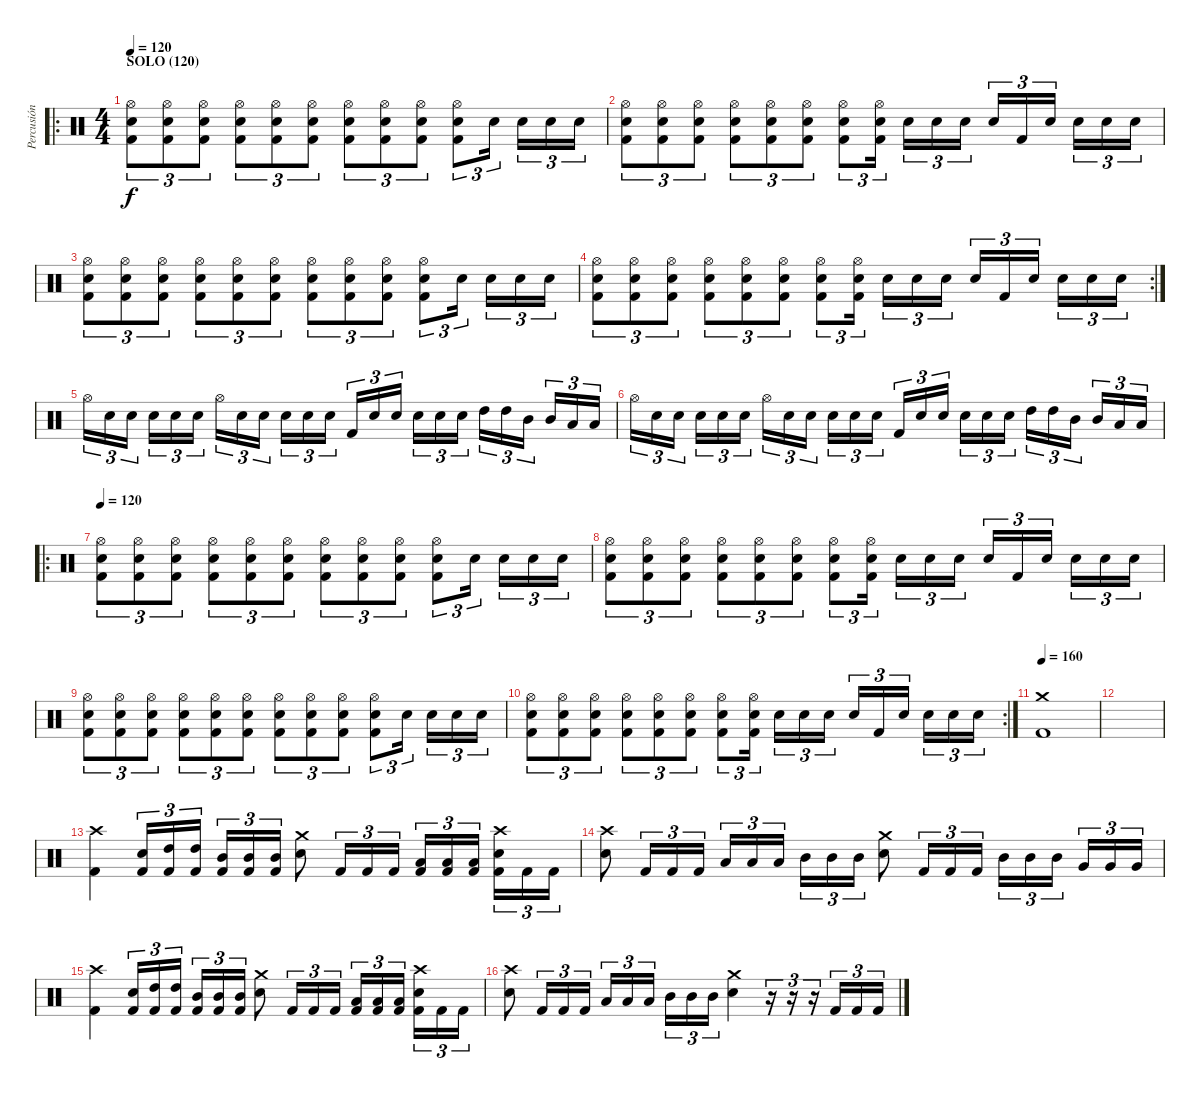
\track ("Percusión" "Percusión") {instrument percussion}
\staff {score}
\articulation defaults
\ro
\ts (4 4)
\section ("" "SOLO (120)")
\tempo 120
\clef neutral
\ks c
("Hi-Hat (open)" "Electric Snare (hit)" "Kick (hit) 2").8{tu (3 2) dy f} ("Hi-Hat (open)" "Electric Snare (hit)" "Kick (hit) 2").8{tu (3 2)} ("Hi-Hat (open)" "Electric Snare (hit)" "Kick (hit) 2").8{tu (3 2)} ("Hi-Hat (open)" "Electric Snare (hit)" "Kick (hit) 2").8{tu (3 2)} ("Hi-Hat (open)" "Electric Snare (hit)" "Kick (hit) 2").8{tu (3 2)} ("Hi-Hat (open)" "Electric Snare (hit)" "Kick (hit) 2").8{tu (3 2)} ("Hi-Hat (open)" "Electric Snare (hit)" "Kick (hit) 2").8{tu (3 2)} ("Hi-Hat (open)" "Electric Snare (hit)" "Kick (hit) 2").8{tu (3 2)} ("Hi-Hat (open)" "Electric Snare (hit)" "Kick (hit) 2").8{tu (3 2)} ("Hi-Hat (open)" "Electric Snare (hit)" "Kick (hit) 2").8{tu (3 2)} "Electric Snare (hit)".16{tu (3 2)} "Electric Snare (hit)".16{tu (3 2)} "Electric Snare (hit)".16{tu (3 2)} "Electric Snare (hit)".16{tu (3 2)} |
("Hi-Hat (open)" "Electric Snare (hit)" "Kick (hit) 2").8{tu (3 2)} ("Hi-Hat (open)" "Electric Snare (hit)" "Kick (hit) 2").8{tu (3 2)} ("Hi-Hat (open)" "Electric Snare (hit)" "Kick (hit) 2").8{tu (3 2)} ("Hi-Hat (open)" "Electric Snare (hit)" "Kick (hit) 2").8{tu (3 2)} ("Hi-Hat (open)" "Electric Snare (hit)" "Kick (hit) 2").8{tu (3 2)} ("Hi-Hat (open)" "Electric Snare (hit)" "Kick (hit) 2").8{tu (3 2)} ("Hi-Hat (open)" "Electric Snare (hit)" "Kick (hit) 2").8{tu (3 2)} ("Hi-Hat (open)" "Electric Snare (hit)" "Kick (hit) 2").16{tu (3 2)} "Electric Snare (hit)".16{tu (3 2)} "Electric Snare (hit)".16{tu (3 2)} "Electric Snare (hit)".16{tu (3 2)} "Electric Snare (hit)".16{tu (3 2)} "Kick (hit) 2".16{tu (3 2)} "Electric Snare (hit)".16{tu (3 2)} "Electric Snare (hit)".16{tu (3 2)} "Electric Snare (hit)".16{tu (3 2)} "Electric Snare (hit)".16{tu (3 2)} |
("Hi-Hat (open)" "Electric Snare (hit)" "Kick (hit) 2").8{tu (3 2)} ("Hi-Hat (open)" "Electric Snare (hit)" "Kick (hit) 2").8{tu (3 2)} ("Hi-Hat (open)" "Electric Snare (hit)" "Kick (hit) 2").8{tu (3 2)} ("Hi-Hat (open)" "Electric Snare (hit)" "Kick (hit) 2").8{tu (3 2)} ("Hi-Hat (open)" "Electric Snare (hit)" "Kick (hit) 2").8{tu (3 2)} ("Hi-Hat (open)" "Electric Snare (hit)" "Kick (hit) 2").8{tu (3 2)} ("Hi-Hat (open)" "Electric Snare (hit)" "Kick (hit) 2").8{tu (3 2)} ("Hi-Hat (open)" "Electric Snare (hit)" "Kick (hit) 2").8{tu (3 2)} ("Hi-Hat (open)" "Electric Snare (hit)" "Kick (hit) 2").8{tu (3 2)} ("Hi-Hat (open)" "Electric Snare (hit)" "Kick (hit) 2").8{tu (3 2)} "Electric Snare (hit)".16{tu (3 2)} "Electric Snare (hit)".16{tu (3 2)} "Electric Snare (hit)".16{tu (3 2)} "Electric Snare (hit)".16{tu (3 2)} |
\rc 2
("Hi-Hat (open)" "Electric Snare (hit)" "Kick (hit) 2").8{tu (3 2)} ("Hi-Hat (open)" "Electric Snare (hit)" "Kick (hit) 2").8{tu (3 2)} ("Hi-Hat (open)" "Electric Snare (hit)" "Kick (hit) 2").8{tu (3 2)} ("Hi-Hat (open)" "Electric Snare (hit)" "Kick (hit) 2").8{tu (3 2)} ("Hi-Hat (open)" "Electric Snare (hit)" "Kick (hit) 2").8{tu (3 2)} ("Hi-Hat (open)" "Electric Snare (hit)" "Kick (hit) 2").8{tu (3 2)} ("Hi-Hat (open)" "Electric Snare (hit)" "Kick (hit) 2").8{tu (3 2)} ("Hi-Hat (open)" "Electric Snare (hit)" "Kick (hit) 2").16{tu (3 2)} "Electric Snare (hit)".16{tu (3 2)} "Electric Snare (hit)".16{tu (3 2)} "Electric Snare (hit)".16{tu (3 2)} "Electric Snare (hit)".16{tu (3 2)} "Kick (hit) 2".16{tu (3 2)} "Electric Snare (hit)".16{tu (3 2)} "Electric Snare (hit)".16{tu (3 2)} "Electric Snare (hit)".16{tu (3 2)} "Electric Snare (hit)".16{tu (3 2)} |
"Hi-Hat (open)".16{tu (3 2)} "Electric Snare (hit)".16{tu (3 2)} "Electric Snare (hit)".16{tu (3 2)} "Electric Snare (hit)".16{tu (3 2)} "Electric Snare (hit)".16{tu (3 2)} "Electric Snare (hit)".16{tu (3 2)} "Hi-Hat (open)".16{tu (3 2)} "Electric Snare (hit)".16{tu (3 2)} "Electric Snare (hit)".16{tu (3 2)} "Electric Snare (hit)".16{tu (3 2)} "Electric Snare (hit)".16{tu (3 2)} "Electric Snare (hit)".16{tu (3 2)} "Kick (hit) 2".16{tu (3 2)} "Electric Snare (hit)".16{tu (3 2)} "Electric Snare (hit)".16{tu (3 2)} "Electric Snare (hit)".16{tu (3 2)} "Electric Snare (hit)".16{tu (3 2)} "Electric Snare (hit)".16{tu (3 2)} "High Tom (hit)".16{tu (3 2)} "High Tom (hit)".16{tu (3 2)} "Mid Tom (hit)".16{tu (3 2)} "Mid Tom (hit)".16{tu (3 2)} "Low Tom (hit)".16{tu (3 2)} "Low Tom (hit)".16{tu (3 2)} |
"Hi-Hat (open)".16{tu (3 2)} "Electric Snare (hit)".16{tu (3 2)} "Electric Snare (hit)".16{tu (3 2)} "Electric Snare (hit)".16{tu (3 2)} "Electric Snare (hit)".16{tu (3 2)} "Electric Snare (hit)".16{tu (3 2)} "Hi-Hat (open)".16{tu (3 2)} "Electric Snare (hit)".16{tu (3 2)} "Electric Snare (hit)".16{tu (3 2)} "Electric Snare (hit)".16{tu (3 2)} "Electric Snare (hit)".16{tu (3 2)} "Electric Snare (hit)".16{tu (3 2)} "Kick (hit) 2".16{tu (3 2)} "Electric Snare (hit)".16{tu (3 2)} "Electric Snare (hit)".16{tu (3 2)} "Electric Snare (hit)".16{tu (3 2)} "Electric Snare (hit)".16{tu (3 2)} "Electric Snare (hit)".16{tu (3 2)} "High Tom (hit)".16{tu (3 2)} "High Tom (hit)".16{tu (3 2)} "Mid Tom (hit)".16{tu (3 2)} "Mid Tom (hit)".16{tu (3 2)} "Low Tom (hit)".16{tu (3 2)} "Low Tom (hit)".16{tu (3 2)} |
\ro
\tempo 120
("Hi-Hat (open)" "Electric Snare (hit)" "Kick (hit) 2").8{tu (3 2)} ("Hi-Hat (open)" "Electric Snare (hit)" "Kick (hit) 2").8{tu (3 2)} ("Hi-Hat (open)" "Electric Snare (hit)" "Kick (hit) 2").8{tu (3 2)} ("Hi-Hat (open)" "Electric Snare (hit)" "Kick (hit) 2").8{tu (3 2)} ("Hi-Hat (open)" "Electric Snare (hit)" "Kick (hit) 2").8{tu (3 2)} ("Hi-Hat (open)" "Electric Snare (hit)" "Kick (hit) 2").8{tu (3 2)} ("Hi-Hat (open)" "Electric Snare (hit)" "Kick (hit) 2").8{tu (3 2)} ("Hi-Hat (open)" "Electric Snare (hit)" "Kick (hit) 2").8{tu (3 2)} ("Hi-Hat (open)" "Electric Snare (hit)" "Kick (hit) 2").8{tu (3 2)} ("Hi-Hat (open)" "Electric Snare (hit)" "Kick (hit) 2").8{tu (3 2)} "Electric Snare (hit)".16{tu (3 2)} "Electric Snare (hit)".16{tu (3 2)} "Electric Snare (hit)".16{tu (3 2)} "Electric Snare (hit)".16{tu (3 2)} |
("Hi-Hat (open)" "Electric Snare (hit)" "Kick (hit) 2").8{tu (3 2)} ("Hi-Hat (open)" "Electric Snare (hit)" "Kick (hit) 2").8{tu (3 2)} ("Hi-Hat (open)" "Electric Snare (hit)" "Kick (hit) 2").8{tu (3 2)} ("Hi-Hat (open)" "Electric Snare (hit)" "Kick (hit) 2").8{tu (3 2)} ("Hi-Hat (open)" "Electric Snare (hit)" "Kick (hit) 2").8{tu (3 2)} ("Hi-Hat (open)" "Electric Snare (hit)" "Kick (hit) 2").8{tu (3 2)} ("Hi-Hat (open)" "Electric Snare (hit)" "Kick (hit) 2").8{tu (3 2)} ("Hi-Hat (open)" "Electric Snare (hit)" "Kick (hit) 2").16{tu (3 2)} "Electric Snare (hit)".16{tu (3 2)} "Electric Snare (hit)".16{tu (3 2)} "Electric Snare (hit)".16{tu (3 2)} "Electric Snare (hit)".16{tu (3 2)} "Kick (hit) 2".16{tu (3 2)} "Electric Snare (hit)".16{tu (3 2)} "Electric Snare (hit)".16{tu (3 2)} "Electric Snare (hit)".16{tu (3 2)} "Electric Snare (hit)".16{tu (3 2)} |
("Hi-Hat (open)" "Electric Snare (hit)" "Kick (hit) 2").8{tu (3 2)} ("Hi-Hat (open)" "Electric Snare (hit)" "Kick (hit) 2").8{tu (3 2)} ("Hi-Hat (open)" "Electric Snare (hit)" "Kick (hit) 2").8{tu (3 2)} ("Hi-Hat (open)" "Electric Snare (hit)" "Kick (hit) 2").8{tu (3 2)} ("Hi-Hat (open)" "Electric Snare (hit)" "Kick (hit) 2").8{tu (3 2)} ("Hi-Hat (open)" "Electric Snare (hit)" "Kick (hit) 2").8{tu (3 2)} ("Hi-Hat (open)" "Electric Snare (hit)" "Kick (hit) 2").8{tu (3 2)} ("Hi-Hat (open)" "Electric Snare (hit)" "Kick (hit) 2").8{tu (3 2)} ("Hi-Hat (open)" "Electric Snare (hit)" "Kick (hit) 2").8{tu (3 2)} ("Hi-Hat (open)" "Electric Snare (hit)" "Kick (hit) 2").8{tu (3 2)} "Electric Snare (hit)".16{tu (3 2)} "Electric Snare (hit)".16{tu (3 2)} "Electric Snare (hit)".16{tu (3 2)} "Electric Snare (hit)".16{tu (3 2)} |
\rc 2
("Hi-Hat (open)" "Electric Snare (hit)" "Kick (hit) 2").8{tu (3 2)} ("Hi-Hat (open)" "Electric Snare (hit)" "Kick (hit) 2").8{tu (3 2)} ("Hi-Hat (open)" "Electric Snare (hit)" "Kick (hit) 2").8{tu (3 2)} ("Hi-Hat (open)" "Electric Snare (hit)" "Kick (hit) 2").8{tu (3 2)} ("Hi-Hat (open)" "Electric Snare (hit)" "Kick (hit) 2").8{tu (3 2)} ("Hi-Hat (open)" "Electric Snare (hit)" "Kick (hit) 2").8{tu (3 2)} ("Hi-Hat (open)" "Electric Snare (hit)" "Kick (hit) 2").8{tu (3 2)} ("Hi-Hat (open)" "Electric Snare (hit)" "Kick (hit) 2").16{tu (3 2)} "Electric Snare (hit)".16{tu (3 2)} "Electric Snare (hit)".16{tu (3 2)} "Electric Snare (hit)".16{tu (3 2)} "Electric Snare (hit)".16{tu (3 2)} "Kick (hit) 2".16{tu (3 2)} "Electric Snare (hit)".16{tu (3 2)} "Electric Snare (hit)".16{tu (3 2)} "Electric Snare (hit)".16{tu (3 2)} "Electric Snare (hit)".16{tu (3 2)} |
\tempo 160
("Crash medium (hit)" "Kick (hit) 2").1 |
|
("Crash high (hit)" "Kick (hit) 2").4 ("Electric Snare (hit)" "Kick (hit) 2").16{tu (3 2)} ("High Tom (hit)" "Kick (hit) 2").16{tu (3 2)} ("High Tom (hit)" "Kick (hit) 2").16{tu (3 2)} ("Mid Tom (hit)" "Kick (hit) 2").16{tu (3 2)} ("Mid Tom (hit)" "Kick (hit) 2").16{tu (3 2)} ("Mid Tom (hit)" "Kick (hit) 2").16{tu (3 2)} ("Crash medium (hit)" "Electric Snare (hit)").8 "Kick (hit) 2".16{tu (3 2)} "Kick (hit) 2".16{tu (3 2)} "Kick (hit) 2".16{tu (3 2)} ("Low Tom (hit)" "Kick (hit) 2").16{tu (3 2)} ("Low Tom (hit)" "Kick (hit) 2").16{tu (3 2)} ("Low Tom (hit)" "Kick (hit) 2").16{tu (3 2)} ("Crash high (hit)" "Electric Snare (hit)" "Kick (hit) 2").16{tu (3 2)} "Kick (hit) 2".16{tu (3 2)} "Kick (hit) 2".16{tu (3 2)} |
("Crash high (hit)" "Electric Snare (hit)").8 "Kick (hit) 2".16{tu (3 2)} "Kick (hit) 2".16{tu (3 2)} "Kick (hit) 2".16{tu (3 2)} "Low Tom (hit)".16{tu (3 2)} "Low Tom (hit)".16{tu (3 2)} "Low Tom (hit)".16{tu (3 2)} "Mid Tom (hit)".16{tu (3 2)} "Mid Tom (hit)".16{tu (3 2)} "Mid Tom (hit)".16{tu (3 2)} ("Crash medium (hit)" "Electric Snare (hit)").8 "Kick (hit) 2".16{tu (3 2)} "Kick (hit) 2".16{tu (3 2)} "Kick (hit) 2".16{tu (3 2)} "Mid Tom (hit)".16{tu (3 2)} "Mid Tom (hit)".16{tu (3 2)} "Mid Tom (hit)".16{tu (3 2)} "Very Low Tom (hit)".16{tu (3 2)} "Very Low Tom (hit)".16{tu (3 2)} "Very Low Tom (hit)".16{tu (3 2)} |
("Crash high (hit)" "Kick (hit) 2").4 ("Electric Snare (hit)" "Kick (hit) 2").16{tu (3 2)} ("High Tom (hit)" "Kick (hit) 2").16{tu (3 2)} ("High Tom (hit)" "Kick (hit) 2").16{tu (3 2)} ("Mid Tom (hit)" "Kick (hit) 2").16{tu (3 2)} ("Mid Tom (hit)" "Kick (hit) 2").16{tu (3 2)} ("Mid Tom (hit)" "Kick (hit) 2").16{tu (3 2)} ("Crash medium (hit)" "Electric Snare (hit)").8 "Kick (hit) 2".16{tu (3 2)} "Kick (hit) 2".16{tu (3 2)} "Kick (hit) 2".16{tu (3 2)} ("Low Tom (hit)" "Kick (hit) 2").16{tu (3 2)} ("Low Tom (hit)" "Kick (hit) 2").16{tu (3 2)} ("Low Tom (hit)" "Kick (hit) 2").16{tu (3 2)} ("Crash high (hit)" "Electric Snare (hit)" "Kick (hit) 2").16{tu (3 2)} "Kick (hit) 2".16{tu (3 2)} "Kick (hit) 2".16{tu (3 2)} |
("Crash high (hit)" "Electric Snare (hit)").8 "Kick (hit) 2".16{tu (3 2)} "Kick (hit) 2".16{tu (3 2)} "Kick (hit) 2".16{tu (3 2)} "Low Tom (hit)".16{tu (3 2)} "Low Tom (hit)".16{tu (3 2)} "Low Tom (hit)".16{tu (3 2)} "Mid Tom (hit)".16{tu (3 2)} "Mid Tom (hit)".16{tu (3 2)} "Mid Tom (hit)".16{tu (3 2)} ("Crash medium (hit)" "Electric Snare (hit)").4 r.16{tu (3 2)} r.16{tu (3 2)} r.16{tu (3 2)} "Kick (hit) 2".16{tu (3 2)} "Kick (hit) 2".16{tu (3 2)} "Kick (hit) 2".16{tu (3 2)}
